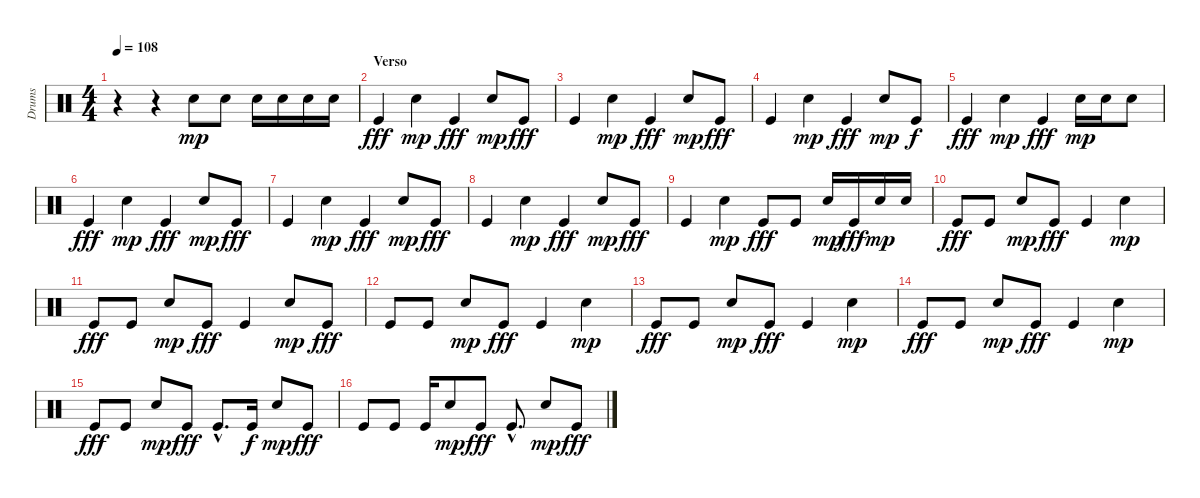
\track ("Drums" "Drums") {instrument percussion}
\staff {score}
\articulation defaults
\ts (4 4)
\tempo 108
\clef neutral
\ks c
r.4{dy mp} r.4 "Snare (hit) 2".8 "Snare (hit) 2".8 "Snare (hit) 2".16 "Snare (hit) 2".16 "Snare (hit) 2".16 "Snare (hit) 2".16 |
\section ("" "Verso")
"Kick (hit)".4{dy fff} "Snare (hit) 2".4{dy mp} "Kick (hit)".4{dy fff} "Snare (hit) 2".8{dy mp} "Kick (hit)".8{dy fff} |
"Kick (hit)".4 "Snare (hit) 2".4{dy mp} "Kick (hit)".4{dy fff} "Snare (hit) 2".8{dy mp} "Kick (hit)".8{dy fff} |
"Kick (hit)".4 "Snare (hit) 2".4{dy mp} "Kick (hit)".4{dy fff} "Snare (hit) 2".8{dy mp} "Kick (hit)".8{dy f} |
"Kick (hit)".4{dy fff} "Snare (hit) 2".4{dy mp} "Kick (hit)".4{dy fff} "Snare (hit) 2".16{dy mp} "Snare (hit) 2".16 "Snare (hit) 2".8 |
"Kick (hit)".4{dy fff} "Snare (hit) 2".4{dy mp} "Kick (hit)".4{dy fff} "Snare (hit) 2".8{dy mp} "Kick (hit)".8{dy fff} |
"Kick (hit)".4 "Snare (hit) 2".4{dy mp} "Kick (hit)".4{dy fff} "Snare (hit) 2".8{dy mp} "Kick (hit)".8{dy fff} |
"Kick (hit)".4 "Snare (hit) 2".4{dy mp} "Kick (hit)".4{dy fff} "Snare (hit) 2".8{dy mp} "Kick (hit)".8{dy fff} |
"Kick (hit)".4 "Snare (hit) 2".4{dy mp} "Kick (hit)".8{dy fff} "Kick (hit)".8 "Snare (hit) 2".16{dy mp} "Kick (hit)".16{dy fff} "Snare (hit) 2".16{dy mp} "Snare (hit) 2".16 |
"Kick (hit)".8{dy fff} "Kick (hit)".8 "Snare (hit) 2".8{dy mp} "Kick (hit)".8{dy fff} "Kick (hit)".4 "Snare (hit) 2".4{dy mp} |
"Kick (hit)".8{dy fff} "Kick (hit)".8 "Snare (hit) 2".8{dy mp} "Kick (hit)".8{dy fff} "Kick (hit)".4 "Snare (hit) 2".8{dy mp} "Kick (hit)".8{dy fff} |
"Kick (hit)".8 "Kick (hit)".8 "Snare (hit) 2".8{dy mp} "Kick (hit)".8{dy fff} "Kick (hit)".4 "Snare (hit) 2".4{dy mp} |
"Kick (hit)".8{dy fff} "Kick (hit)".8 "Snare (hit) 2".8{dy mp} "Kick (hit)".8{dy fff} "Kick (hit)".4 "Snare (hit) 2".4{dy mp} |
"Kick (hit)".8{dy fff} "Kick (hit)".8 "Snare (hit) 2".8{dy mp} "Kick (hit)".8{dy fff} "Kick (hit)".4 "Snare (hit) 2".4{dy mp} |
"Kick (hit)".8{dy fff} "Kick (hit)".8 "Snare (hit) 2".8{dy mp} "Kick (hit)".8{dy fff} "Kick (hit)"{hac}.8{d} "Kick (hit)".16{dy f} "Snare (hit) 2".8{dy mp} "Kick (hit)".8{dy fff} |
"Kick (hit)".8 "Kick (hit)".8 "Kick (hit)".16 "Snare (hit) 2".8{dy mp} "Kick (hit)".8{dy fff} "Kick (hit)"{hac}.8{d} "Snare (hit) 2".8{dy mp} "Kick (hit)".8{dy fff}
